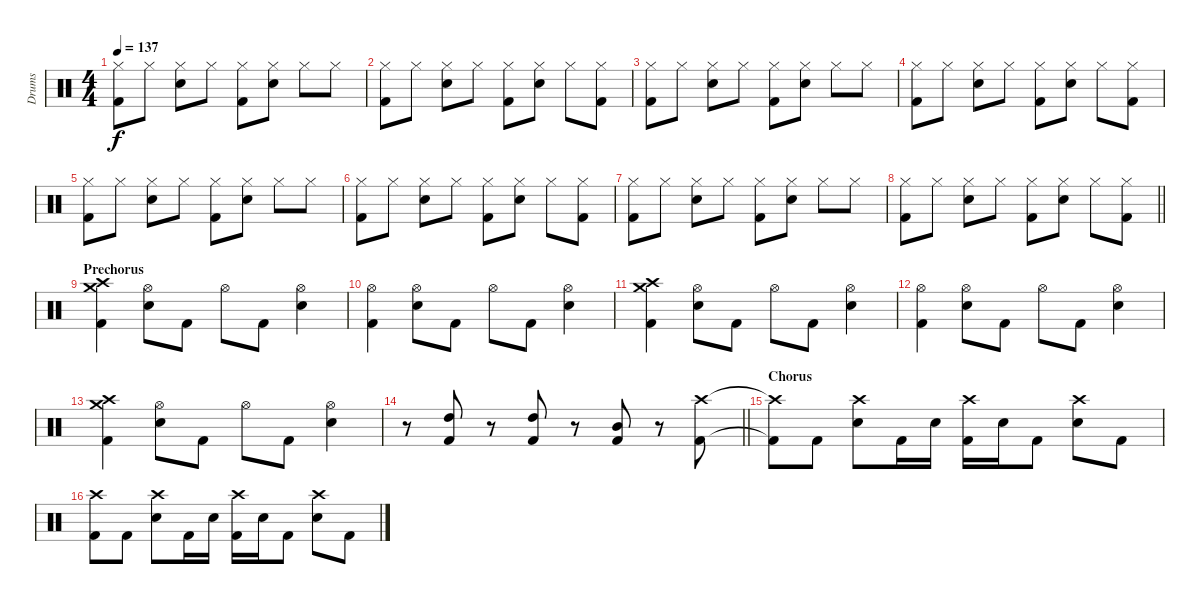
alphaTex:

\track ("Drums" "Drums") {instrument percussion}
\staff {score}
\articulation defaults
\ts (4 4)
\tempo 137
\clef neutral
\ks c
("Hi-Hat (closed)" "Kick (hit) 2").8{dy f} "Hi-Hat (closed)".8 ("Hi-Hat (closed)" "Electric Snare (hit)").8 "Hi-Hat (closed)".8 ("Hi-Hat (closed)" "Kick (hit) 2").8 ("Hi-Hat (closed)" "Electric Snare (hit)").8 "Hi-Hat (closed)".8 "Hi-Hat (closed)".8 |
("Hi-Hat (closed)" "Kick (hit) 2").8 "Hi-Hat (closed)".8 ("Hi-Hat (closed)" "Electric Snare (hit)").8 "Hi-Hat (closed)".8 ("Hi-Hat (closed)" "Kick (hit) 2").8 ("Hi-Hat (closed)" "Electric Snare (hit)").8 "Hi-Hat (closed)".8 ("Hi-Hat (closed)" "Kick (hit) 2").8 |
("Hi-Hat (closed)" "Kick (hit) 2").8 "Hi-Hat (closed)".8 ("Hi-Hat (closed)" "Electric Snare (hit)").8 "Hi-Hat (closed)".8 ("Hi-Hat (closed)" "Kick (hit) 2").8 ("Hi-Hat (closed)" "Electric Snare (hit)").8 "Hi-Hat (closed)".8 "Hi-Hat (closed)".8 |
("Hi-Hat (closed)" "Kick (hit) 2").8 "Hi-Hat (closed)".8 ("Hi-Hat (closed)" "Electric Snare (hit)").8 "Hi-Hat (closed)".8 ("Hi-Hat (closed)" "Kick (hit) 2").8 ("Hi-Hat (closed)" "Electric Snare (hit)").8 "Hi-Hat (closed)".8 ("Hi-Hat (closed)" "Kick (hit) 2").8 |
("Hi-Hat (closed)" "Kick (hit) 2").8 "Hi-Hat (closed)".8 ("Hi-Hat (closed)" "Electric Snare (hit)").8 "Hi-Hat (closed)".8 ("Hi-Hat (closed)" "Kick (hit) 2").8 ("Hi-Hat (closed)" "Electric Snare (hit)").8 "Hi-Hat (closed)".8 "Hi-Hat (closed)".8 |
("Hi-Hat (closed)" "Kick (hit) 2").8 "Hi-Hat (closed)".8 ("Hi-Hat (closed)" "Electric Snare (hit)").8 "Hi-Hat (closed)".8 ("Hi-Hat (closed)" "Kick (hit) 2").8 ("Hi-Hat (closed)" "Electric Snare (hit)").8 "Hi-Hat (closed)".8 ("Hi-Hat (closed)" "Kick (hit) 2").8 |
("Hi-Hat (closed)" "Kick (hit) 2").8 "Hi-Hat (closed)".8 ("Hi-Hat (closed)" "Electric Snare (hit)").8 "Hi-Hat (closed)".8 ("Hi-Hat (closed)" "Kick (hit) 2").8 ("Hi-Hat (closed)" "Electric Snare (hit)").8 "Hi-Hat (closed)".8 "Hi-Hat (closed)".8 |
\barLineRight lightlight
("Hi-Hat (closed)" "Kick (hit) 2").8 "Hi-Hat (closed)".8 ("Hi-Hat (closed)" "Electric Snare (hit)").8 "Hi-Hat (closed)".8 ("Hi-Hat (closed)" "Kick (hit) 2").8 ("Hi-Hat (closed)" "Electric Snare (hit)").8 "Hi-Hat (closed)".8 ("Hi-Hat (closed)" "Kick (hit) 2").8 |
\section ("" "Prechorus")
("Crash medium (hit)" "Crash high (hit)" "Kick (hit) 2").4 ("Hi-Hat (open)" "Electric Snare (hit)").8 "Kick (hit) 2".8 "Hi-Hat (open)".8 "Kick (hit) 2".8 ("Hi-Hat (open)" "Electric Snare (hit)").4 |
("Hi-Hat (open)" "Kick (hit) 2").4 ("Hi-Hat (open)" "Electric Snare (hit)").8 "Kick (hit) 2".8 "Hi-Hat (open)".8 "Kick (hit) 2".8 ("Hi-Hat (open)" "Electric Snare (hit)").4 |
("Crash medium (hit)" "Crash high (hit)" "Kick (hit) 2").4 ("Hi-Hat (open)" "Electric Snare (hit)").8 "Kick (hit) 2".8 "Hi-Hat (open)".8 "Kick (hit) 2".8 ("Hi-Hat (open)" "Electric Snare (hit)").4 |
("Hi-Hat (open)" "Kick (hit) 2").4 ("Hi-Hat (open)" "Electric Snare (hit)").8 "Kick (hit) 2".8 "Hi-Hat (open)".8 "Kick (hit) 2".8 ("Hi-Hat (open)" "Electric Snare (hit)").4 |
("Crash medium (hit)" "Crash high (hit)" "Kick (hit) 2").4 ("Hi-Hat (open)" "Electric Snare (hit)").8 "Kick (hit) 2".8 "Hi-Hat (open)".8 "Kick (hit) 2".8 ("Hi-Hat (open)" "Electric Snare (hit)").4 |
\barLineRight lightlight
r.8 ("High Tom (hit)" "Kick (hit) 2").8 r.8 ("High Tom (hit)" "Kick (hit) 2").8 r.8 ("Mid Tom (hit)" "Kick (hit) 2").8 r.8 ("Crash high (hit)" "Kick (hit) 2").8 |
\section ("" "Chorus")
("Crash high (hit)"{t} "Kick (hit) 2"{t}).8 "Kick (hit) 2".8 ("Crash high (hit)" "Electric Snare (hit)").8 "Kick (hit) 2".16 "Electric Snare (hit)".16 ("Crash high (hit)" "Kick (hit) 2").16 "Electric Snare (hit)".16 "Kick (hit) 2".8 ("Crash high (hit)" "Electric Snare (hit)").8 "Kick (hit) 2".8 |
("Crash high (hit)" "Kick (hit) 2").8 "Kick (hit) 2".8 ("Crash high (hit)" "Electric Snare (hit)").8 "Kick (hit) 2".16 "Electric Snare (hit)".16 ("Crash high (hit)" "Kick (hit) 2").16 "Electric Snare (hit)".16 "Kick (hit) 2".8 ("Crash high (hit)" "Electric Snare (hit)").8 "Kick (hit) 2".8
